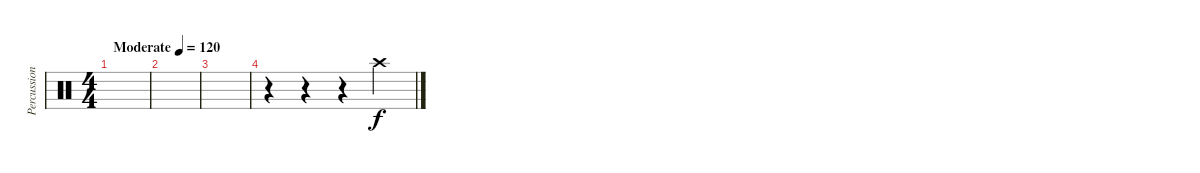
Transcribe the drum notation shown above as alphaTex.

\track ("Percussion" "Percussion") {instrument percussion}
\staff {score}
\articulation defaults
\ts (4 4)
\tempo (120 "Moderate")
\clef neutral
\ks c
|
|
|
r.4 r.4 r.4 "Crash high (hit)".4
